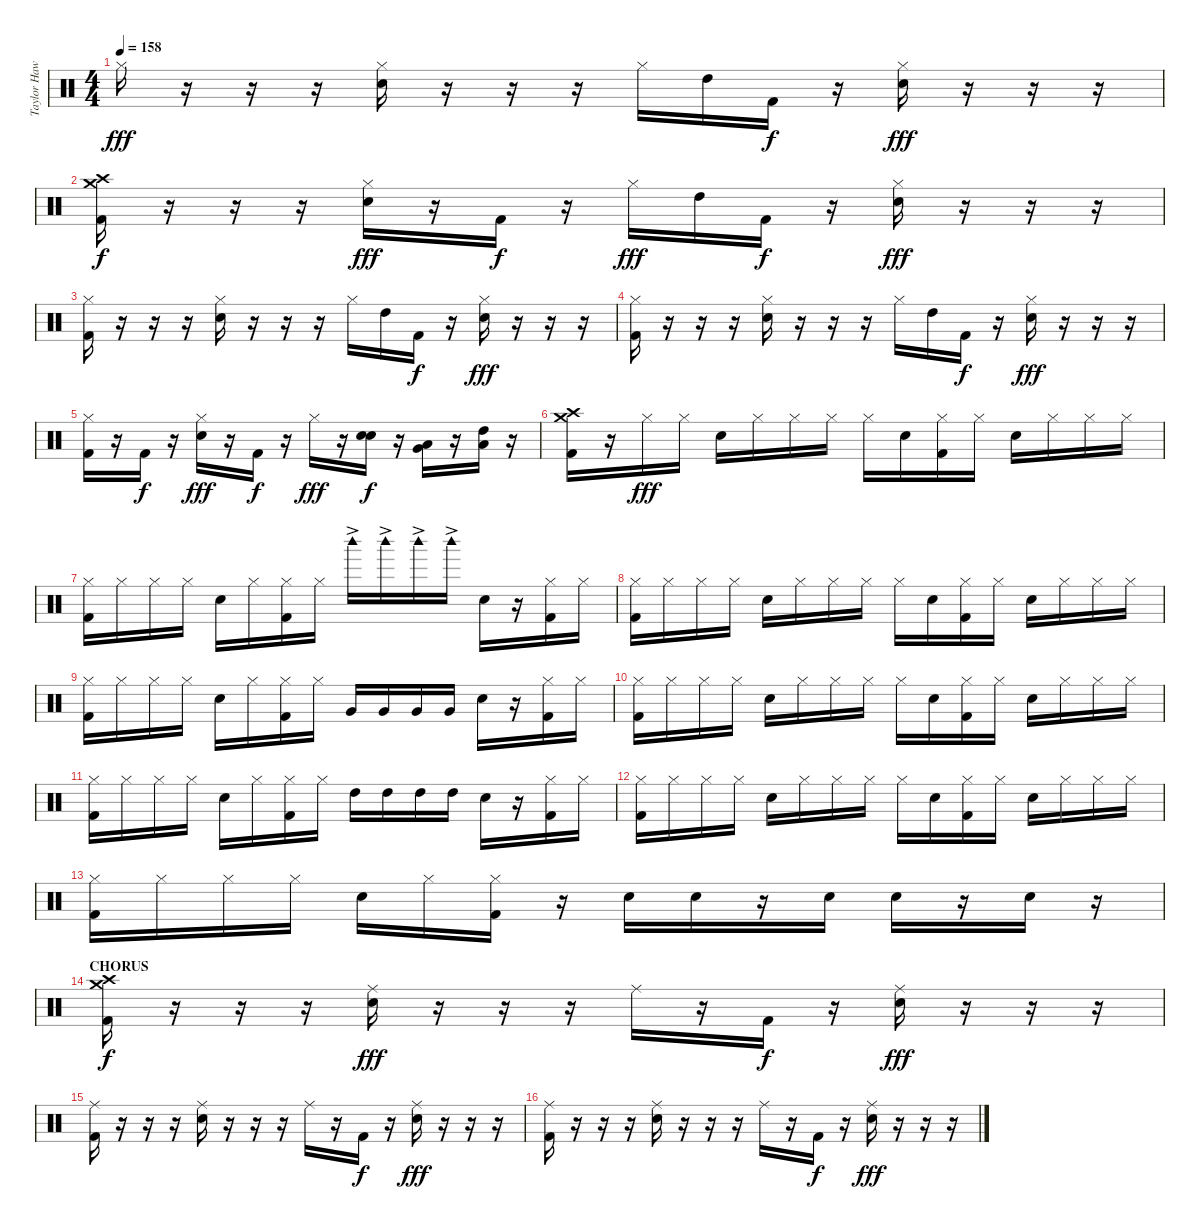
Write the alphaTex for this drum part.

\track ("Taylor Hawkins (Drums)" "Taylor Haw") {instrument percussion}
\staff {score}
\articulation defaults
\ts (4 4)
\tempo 158
\clef neutral
\ks c "Hi-Hat (closed)".16{dy fff}
r.16 r.16 r.16 ("Hi-Hat (closed)" "Electric Snare (hit)").16 r.16 r.16 r.16 "Hi-Hat (closed)".16 "High Tom (hit)".16 "Kick (hit) 2".16{dy f} r.16 ("Hi-Hat (closed)" "Electric Snare (hit)").16{dy fff} r.16 r.16 r.16 |
("Crash high (hit)" "Crash medium (hit)" "Kick (hit) 2").16{dy f} r.16 r.16 r.16 ("Hi-Hat (closed)" "Electric Snare (hit)").16{dy fff} r.16 "Kick (hit) 2".16{dy f} r.16 "Hi-Hat (closed)".16{dy fff} "High Tom (hit)".16 "Kick (hit) 2".16{dy f} r.16 ("Hi-Hat (closed)" "Electric Snare (hit)").16{dy fff} r.16 r.16 r.16 |
("Hi-Hat (closed)" "Kick (hit) 2").16 r.16 r.16 r.16 ("Hi-Hat (closed)" "Electric Snare (hit)").16 r.16 r.16 r.16 "Hi-Hat (closed)".16 "High Tom (hit)".16 "Kick (hit) 2".16{dy f} r.16 ("Hi-Hat (closed)" "Electric Snare (hit)").16{dy fff} r.16 r.16 r.16 |
("Hi-Hat (closed)" "Kick (hit) 2").16 r.16 r.16 r.16 ("Hi-Hat (closed)" "Electric Snare (hit)").16 r.16 r.16 r.16 "Hi-Hat (closed)".16 "High Tom (hit)".16 "Kick (hit) 2".16{dy f} r.16 ("Hi-Hat (closed)" "Electric Snare (hit)").16{dy fff} r.16 r.16 r.16 |
("Hi-Hat (closed)" "Kick (hit) 2").16 r.16 "Kick (hit) 2".16{dy f} r.16 ("Hi-Hat (closed)" "Electric Snare (hit)").16{dy fff} r.16 "Kick (hit) 2".16{dy f} r.16 "Hi-Hat (closed)".16{dy fff} r.16 ("Electric Snare (hit)" "Electric Snare (hit)").16{bu 120 dy f} r.16 ("Low Tom (hit)" "Very Low Tom (hit)").16{bu 120} r.16 ("High Tom (hit)" "Low Tom (hit)").16{bu 120} r.16 |
("Crash high (hit)" "Crash medium (hit)" "Kick (hit) 2").16 r.16 "Hi-Hat (closed)".16{dy fff} "Hi-Hat (closed)".16 "Electric Snare (hit)".16 "Hi-Hat (closed)".16 "Hi-Hat (closed)".16 "Hi-Hat (closed)".16 "Hi-Hat (closed)".16 "Electric Snare (hit)".16 ("Hi-Hat (closed)" "Kick (hit) 2").16 "Hi-Hat (closed)".16 "Electric Snare (hit)".16 "Hi-Hat (closed)".16 "Hi-Hat (closed)".16 "Hi-Hat (closed)".16 |
("Hi-Hat (closed)" "Kick (hit) 2").16 "Hi-Hat (closed)".16 "Hi-Hat (closed)".16 "Hi-Hat (closed)".16 "Electric Snare (hit)".16 "Hi-Hat (closed)".16 ("Hi-Hat (closed)" "Kick (hit) 2").16 "Hi-Hat (closed)".16 "Woodblock high (hit)"{ac}.16 "Woodblock high (hit)"{ac}.16 "Woodblock high (hit)"{ac}.16 "Woodblock high (hit)"{ac}.16 "Electric Snare (hit)".16 r.16 ("Hi-Hat (closed)" "Kick (hit) 2").16 "Hi-Hat (closed)".16 |
("Hi-Hat (closed)" "Kick (hit) 2").16 "Hi-Hat (closed)".16 "Hi-Hat (closed)".16 "Hi-Hat (closed)".16 "Electric Snare (hit)".16 "Hi-Hat (closed)".16 "Hi-Hat (closed)".16 "Hi-Hat (closed)".16 "Hi-Hat (closed)".16 "Electric Snare (hit)".16 ("Hi-Hat (closed)" "Kick (hit) 2").16 "Hi-Hat (closed)".16 "Electric Snare (hit)".16 "Hi-Hat (closed)".16 "Hi-Hat (closed)".16 "Hi-Hat (closed)".16 |
("Hi-Hat (closed)" "Kick (hit) 2").16 "Hi-Hat (closed)".16 "Hi-Hat (closed)".16 "Hi-Hat (closed)".16 "Electric Snare (hit)".16 "Hi-Hat (closed)".16 ("Hi-Hat (closed)" "Kick (hit) 2").16 "Hi-Hat (closed)".16 "Very Low Tom (hit)".16 "Very Low Tom (hit)".16 "Very Low Tom (hit)".16 "Very Low Tom (hit)".16 "Electric Snare (hit)".16 r.16 ("Hi-Hat (closed)" "Kick (hit) 2").16 "Hi-Hat (closed)".16 |
("Hi-Hat (closed)" "Kick (hit) 2").16 "Hi-Hat (closed)".16 "Hi-Hat (closed)".16 "Hi-Hat (closed)".16 "Electric Snare (hit)".16 "Hi-Hat (closed)".16 "Hi-Hat (closed)".16 "Hi-Hat (closed)".16 "Hi-Hat (closed)".16 "Electric Snare (hit)".16 ("Hi-Hat (closed)" "Kick (hit) 2").16 "Hi-Hat (closed)".16 "Electric Snare (hit)".16 "Hi-Hat (closed)".16 "Hi-Hat (closed)".16 "Hi-Hat (closed)".16 |
("Hi-Hat (closed)" "Kick (hit) 2").16 "Hi-Hat (closed)".16 "Hi-Hat (closed)".16 "Hi-Hat (closed)".16 "Electric Snare (hit)".16 "Hi-Hat (closed)".16 ("Hi-Hat (closed)" "Kick (hit) 2").16 "Hi-Hat (closed)".16 "High Tom (hit)".16 "High Tom (hit)".16 "High Tom (hit)".16 "High Tom (hit)".16 "Electric Snare (hit)".16 r.16 ("Hi-Hat (closed)" "Kick (hit) 2").16 "Hi-Hat (closed)".16 |
("Hi-Hat (closed)" "Kick (hit) 2").16 "Hi-Hat (closed)".16 "Hi-Hat (closed)".16 "Hi-Hat (closed)".16 "Electric Snare (hit)".16 "Hi-Hat (closed)".16 "Hi-Hat (closed)".16 "Hi-Hat (closed)".16 "Hi-Hat (closed)".16 "Electric Snare (hit)".16 ("Hi-Hat (closed)" "Kick (hit) 2").16 "Hi-Hat (closed)".16 "Electric Snare (hit)".16 "Hi-Hat (closed)".16 "Hi-Hat (closed)".16 "Hi-Hat (closed)".16 |
("Hi-Hat (closed)" "Kick (hit) 2").16 "Hi-Hat (closed)".16 "Hi-Hat (closed)".16 "Hi-Hat (closed)".16 "Electric Snare (hit)".16 "Hi-Hat (closed)".16 ("Hi-Hat (closed)" "Kick (hit) 2").16 r.16 "Electric Snare (hit)".16 "Electric Snare (hit)".16 r.16 "Electric Snare (hit)".16 "Electric Snare (hit)".16 r.16 "Electric Snare (hit)".16 r.16 |
\section ("" "CHORUS")
("Crash high (hit)" "Crash medium (hit)" "Kick (hit) 2").16{dy f} r.16 r.16 r.16 ("Ride (middle)" "Electric Snare (hit)").16{dy fff} r.16 r.16 r.16 "Ride (middle)".16 r.16 "Kick (hit) 2".16{dy f} r.16 ("Ride (middle)" "Electric Snare (hit)").16{dy fff} r.16 r.16 r.16 |
("Ride (middle)" "Kick (hit) 2").16 r.16 r.16 r.16 ("Ride (middle)" "Electric Snare (hit)").16 r.16 r.16 r.16 "Ride (middle)".16 r.16 "Kick (hit) 2".16{dy f} r.16 ("Ride (middle)" "Electric Snare (hit)").16{dy fff} r.16 r.16 r.16 |
("Ride (middle)" "Kick (hit) 2").16 r.16 r.16 r.16 ("Ride (middle)" "Electric Snare (hit)").16 r.16 r.16 r.16 "Ride (middle)".16 r.16 "Kick (hit) 2".16{dy f} r.16 ("Ride (middle)" "Electric Snare (hit)").16{dy fff} r.16 r.16 r.16
